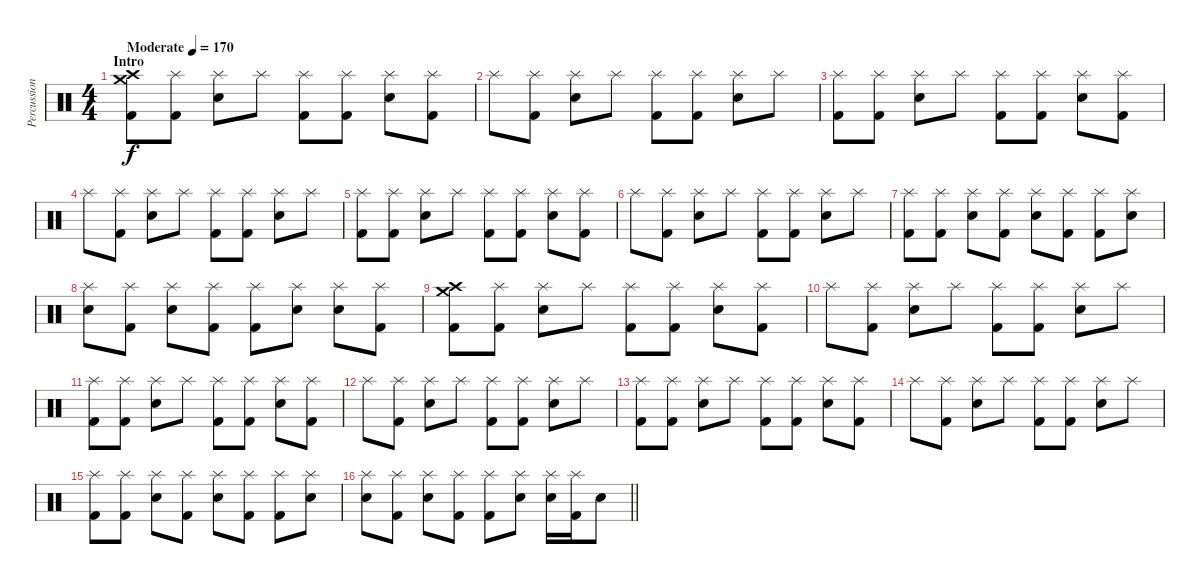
\track ("Percussion" "Percussion") {instrument percussion}
\staff {score}
\articulation defaults
\ts (4 4)
\section ("" "Intro")
\tempo (170 "Moderate")
\clef neutral
\ks c
("Crash medium (hit)" "Crash high (hit)" "Kick (hit) 2").8{dy f} ("Splash (hit)" "Kick (hit) 2").8 ("Splash (hit)" "Electric Snare (hit)").8 "Splash (hit)".8 ("Splash (hit)" "Kick (hit) 2").8 ("Splash (hit)" "Kick (hit) 2").8 ("Splash (hit)" "Electric Snare (hit)").8 ("Splash (hit)" "Kick (hit) 2").8 |
"Splash (hit)".8 ("Splash (hit)" "Kick (hit) 2").8 ("Splash (hit)" "Electric Snare (hit)").8 "Splash (hit)".8 ("Splash (hit)" "Kick (hit) 2").8 ("Splash (hit)" "Kick (hit) 2").8 ("Splash (hit)" "Electric Snare (hit)").8 "Splash (hit)".8 |
("Splash (hit)" "Kick (hit) 2").8 ("Splash (hit)" "Kick (hit) 2").8 ("Splash (hit)" "Electric Snare (hit)").8 "Splash (hit)".8 ("Splash (hit)" "Kick (hit) 2").8 ("Splash (hit)" "Kick (hit) 2").8 ("Splash (hit)" "Electric Snare (hit)").8 ("Splash (hit)" "Kick (hit) 2").8 |
"Splash (hit)".8 ("Splash (hit)" "Kick (hit) 2").8 ("Splash (hit)" "Electric Snare (hit)").8 "Splash (hit)".8 ("Splash (hit)" "Kick (hit) 2").8 ("Splash (hit)" "Kick (hit) 2").8 ("Splash (hit)" "Electric Snare (hit)").8 "Splash (hit)".8 |
("Splash (hit)" "Kick (hit) 2").8 ("Splash (hit)" "Kick (hit) 2").8 ("Splash (hit)" "Electric Snare (hit)").8 "Splash (hit)".8 ("Splash (hit)" "Kick (hit) 2").8 ("Splash (hit)" "Kick (hit) 2").8 ("Splash (hit)" "Electric Snare (hit)").8 ("Splash (hit)" "Kick (hit) 2").8 |
"Splash (hit)".8 ("Splash (hit)" "Kick (hit) 2").8 ("Splash (hit)" "Electric Snare (hit)").8 "Splash (hit)".8 ("Splash (hit)" "Kick (hit) 2").8 ("Splash (hit)" "Kick (hit) 2").8 ("Splash (hit)" "Electric Snare (hit)").8 "Splash (hit)".8 |
("Splash (hit)" "Kick (hit) 2").8 ("Splash (hit)" "Kick (hit) 2").8 ("Splash (hit)" "Electric Snare (hit)").8 ("Splash (hit)" "Kick (hit) 2").8 ("Splash (hit)" "Electric Snare (hit)").8 ("Splash (hit)" "Kick (hit) 2").8 ("Splash (hit)" "Kick (hit) 2").8 ("Splash (hit)" "Electric Snare (hit)").8 |
("Splash (hit)" "Electric Snare (hit)").8 ("Splash (hit)" "Kick (hit) 2").8 ("Splash (hit)" "Electric Snare (hit)").8 ("Splash (hit)" "Kick (hit) 2").8 ("Splash (hit)" "Kick (hit) 2").8 ("Splash (hit)" "Electric Snare (hit)").8 ("Splash (hit)" "Electric Snare (hit)").8 ("Splash (hit)" "Kick (hit) 2").8 |
("Crash medium (hit)" "Crash high (hit)" "Kick (hit) 2").8 ("Splash (hit)" "Kick (hit) 2").8 ("Splash (hit)" "Electric Snare (hit)").8 "Splash (hit)".8 ("Splash (hit)" "Kick (hit) 2").8 ("Splash (hit)" "Kick (hit) 2").8 ("Splash (hit)" "Electric Snare (hit)").8 ("Splash (hit)" "Kick (hit) 2").8 |
"Splash (hit)".8 ("Splash (hit)" "Kick (hit) 2").8 ("Splash (hit)" "Electric Snare (hit)").8 "Splash (hit)".8 ("Splash (hit)" "Kick (hit) 2").8 ("Splash (hit)" "Kick (hit) 2").8 ("Splash (hit)" "Electric Snare (hit)").8 "Splash (hit)".8 |
("Splash (hit)" "Kick (hit) 2").8 ("Splash (hit)" "Kick (hit) 2").8 ("Splash (hit)" "Electric Snare (hit)").8 "Splash (hit)".8 ("Splash (hit)" "Kick (hit) 2").8 ("Splash (hit)" "Kick (hit) 2").8 ("Splash (hit)" "Electric Snare (hit)").8 ("Splash (hit)" "Kick (hit) 2").8 |
"Splash (hit)".8 ("Splash (hit)" "Kick (hit) 2").8 ("Splash (hit)" "Electric Snare (hit)").8 "Splash (hit)".8 ("Splash (hit)" "Kick (hit) 2").8 ("Splash (hit)" "Kick (hit) 2").8 ("Splash (hit)" "Electric Snare (hit)").8 "Splash (hit)".8 |
("Splash (hit)" "Kick (hit) 2").8 ("Splash (hit)" "Kick (hit) 2").8 ("Splash (hit)" "Electric Snare (hit)").8 "Splash (hit)".8 ("Splash (hit)" "Kick (hit) 2").8 ("Splash (hit)" "Kick (hit) 2").8 ("Splash (hit)" "Electric Snare (hit)").8 ("Splash (hit)" "Kick (hit) 2").8 |
"Splash (hit)".8 ("Splash (hit)" "Kick (hit) 2").8 ("Splash (hit)" "Electric Snare (hit)").8 "Splash (hit)".8 ("Splash (hit)" "Kick (hit) 2").8 ("Splash (hit)" "Kick (hit) 2").8 ("Splash (hit)" "Electric Snare (hit)").8 "Splash (hit)".8 |
("Splash (hit)" "Kick (hit) 2").8 ("Splash (hit)" "Kick (hit) 2").8 ("Splash (hit)" "Electric Snare (hit)").8 ("Splash (hit)" "Kick (hit) 2").8 ("Splash (hit)" "Electric Snare (hit)").8 ("Splash (hit)" "Kick (hit) 2").8 ("Splash (hit)" "Kick (hit) 2").8 ("Splash (hit)" "Electric Snare (hit)").8 |
\barLineRight lightlight
("Splash (hit)" "Electric Snare (hit)").8 ("Splash (hit)" "Kick (hit) 2").8 ("Splash (hit)" "Electric Snare (hit)").8 ("Splash (hit)" "Kick (hit) 2").8 ("Splash (hit)" "Kick (hit) 2").8 ("Splash (hit)" "Electric Snare (hit)").8 ("Splash (hit)" "Electric Snare (hit)").16 ("Splash (hit)" "Kick (hit) 2").16 "Electric Snare (hit)".8
